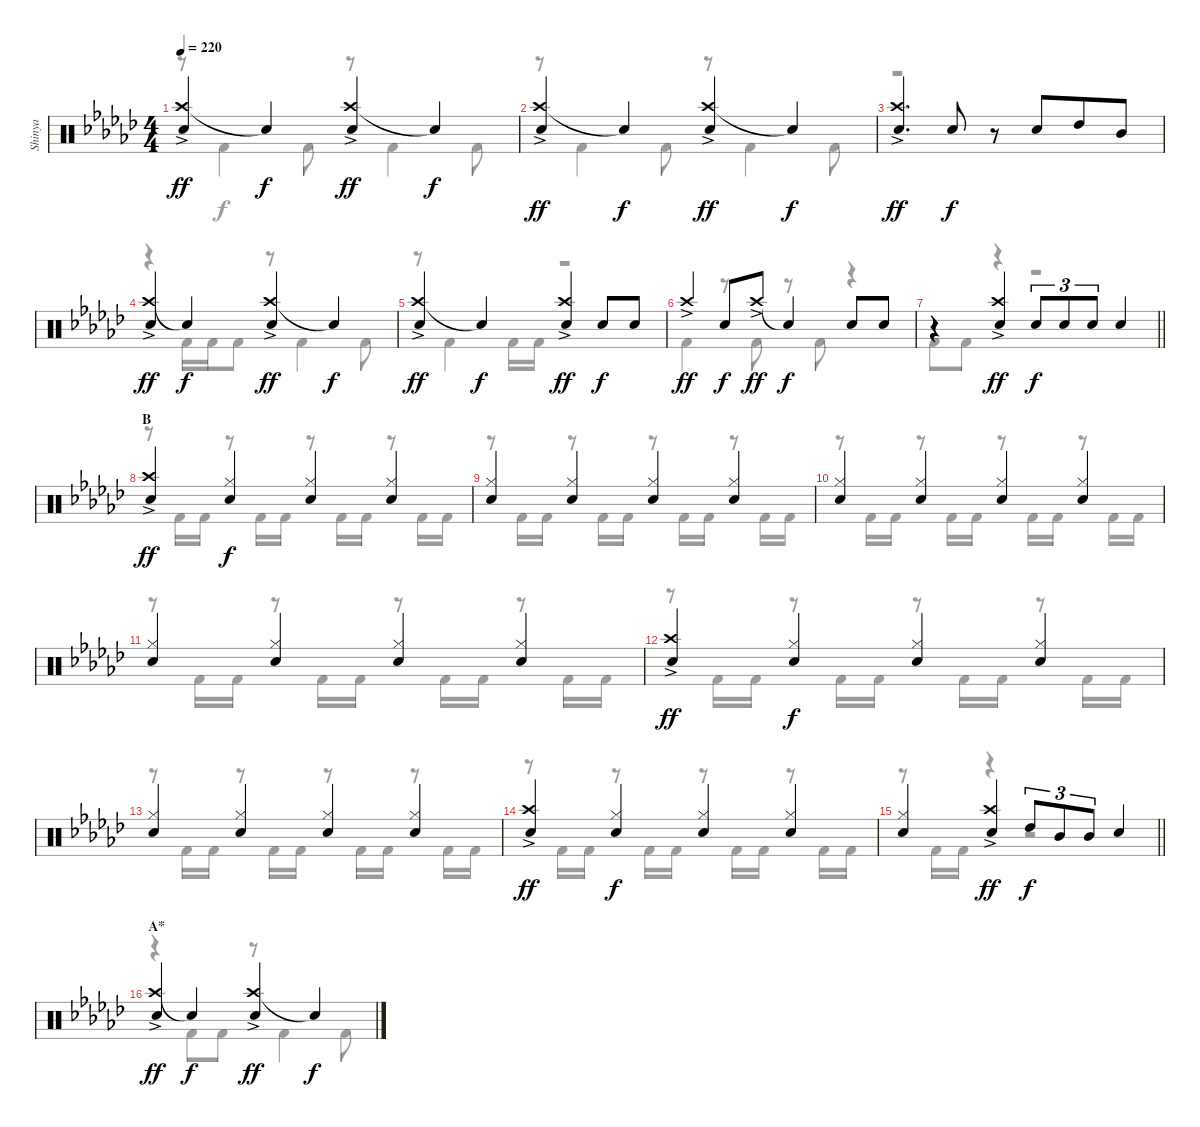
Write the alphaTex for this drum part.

\track ("Shinya" "Shinya") {instrument percussion}
\staff {score}
\articulation defaults
\voice
\ts (4 4)
\tempo 220
\clef neutral
\ks ebminor
("Crash high (hit)"{ac} "Snare (hit) 2").4{dy ff} "Snare (hit)"{t}.4{dy f} ("Crash high (hit)"{ac} "Snare (hit) 2").4{dy ff} "Snare (hit)"{t}.4{dy f} |
("Crash high (hit)"{ac} "Snare (hit) 2").4{dy ff} "Snare (hit)"{t}.4{dy f} ("Crash high (hit)"{ac} "Snare (hit) 2").4{dy ff} "Snare (hit)"{t}.4{dy f} |
("Crash high (hit)"{ac} "Snare (hit) 2").4{d dy ff} "Snare (hit) 2".8{dy f} r.8 "Snare (hit) 2".8{beam merge} "High Tom (hit)".8 "Mid Tom (hit)".8 |
("Crash high (hit)"{ac} "Snare (hit) 2").4{dy ff} "Snare (hit)"{t}.4{dy f} ("Crash high (hit)"{ac} "Snare (hit) 2").4{dy ff} "Snare (hit)"{t}.4{dy f} |
("Crash high (hit)"{ac} "Snare (hit) 2").4{dy ff} "Snare (hit)"{t}.4{dy f} ("Crash high (hit)"{ac} "Snare (hit) 2").4{dy ff} "Snare (hit) 2".8{dy f} "Snare (hit) 2".8 |
"Crash high (hit)"{ac}.4{dy ff} "Snare (hit) 2".8{dy f} "Crash high (hit)"{ac}.8{dy ff} "Snare (hit)"{t}.4{dy f} "Snare (hit) 2".8 "Snare (hit) 2".8 |
\barLineRight lightlight
r.4 ("Crash high (hit)"{ac} "Snare (hit) 2").4{dy ff} "Snare (hit) 2".8{tu (3 2) dy f} "Snare (hit) 2".8{tu (3 2)} "Snare (hit) 2".8{tu (3 2)} "Snare (hit) 2".4 |
\section ("" "B")
("Crash high (hit)"{ac} "Snare (hit) 2").4{dy ff} ("Hi-Hat (closed)" "Snare (hit) 2").4{dy f} ("Hi-Hat (closed)" "Snare (hit) 2").4 ("Hi-Hat (closed)" "Snare (hit) 2").4 |
("Hi-Hat (closed)" "Snare (hit) 2").4 ("Hi-Hat (closed)" "Snare (hit) 2").4 ("Hi-Hat (closed)" "Snare (hit) 2").4 ("Hi-Hat (closed)" "Snare (hit) 2").4 |
("Hi-Hat (closed)" "Snare (hit) 2").4 ("Hi-Hat (closed)" "Snare (hit) 2").4 ("Hi-Hat (closed)" "Snare (hit) 2").4 ("Hi-Hat (closed)" "Snare (hit) 2").4 |
("Hi-Hat (closed)" "Snare (hit) 2").4 ("Hi-Hat (closed)" "Snare (hit) 2").4 ("Hi-Hat (closed)" "Snare (hit) 2").4 ("Hi-Hat (closed)" "Snare (hit) 2").4 |
("Crash high (hit)"{ac} "Snare (hit) 2").4{dy ff} ("Hi-Hat (closed)" "Snare (hit) 2").4{dy f} ("Hi-Hat (closed)" "Snare (hit) 2").4 ("Hi-Hat (closed)" "Snare (hit) 2").4 |
("Hi-Hat (closed)" "Snare (hit) 2").4 ("Hi-Hat (closed)" "Snare (hit) 2").4 ("Hi-Hat (closed)" "Snare (hit) 2").4 ("Hi-Hat (closed)" "Snare (hit) 2").4 |
("Crash high (hit)"{ac} "Snare (hit) 2").4{dy ff} ("Hi-Hat (closed)" "Snare (hit) 2").4{dy f} ("Hi-Hat (closed)" "Snare (hit) 2").4 ("Hi-Hat (closed)" "Snare (hit) 2").4 |
\barLineRight lightlight
("Hi-Hat (closed)" "Snare (hit) 2").4 ("Crash high (hit)"{ac} "Snare (hit) 2").4{dy ff} "High Tom (hit)".8{tu (3 2) dy f} "Mid Tom (hit)".8{tu (3 2)} "Mid Tom (hit)".8{tu (3 2)} "Snare (hit) 2".4 |
\section ("" "A*")
("Crash high (hit)"{ac} "Snare (hit) 2").4{dy ff} "Snare (hit)"{t}.4{dy f} ("Crash high (hit)"{ac} "Snare (hit) 2").4{dy ff} "Snare (hit)"{t}.4{dy f}
\voice
\clef neutral
\ottava regular
\simile none
\ks ebminor
r.8{dy f} "Kick (hit) 2".4 "Kick (hit) 2".8 r.8 "Kick (hit) 2".4 "Kick (hit) 2".8 |
r.8 "Kick (hit) 2".4 "Kick (hit) 2".8 r.8 "Kick (hit) 2".4 "Kick (hit) 2".8 |
r.1 |
r.4 "Kick (hit) 2".16 "Kick (hit) 2".16 "Kick (hit) 2".8 r.8 "Kick (hit) 2".4 "Kick (hit) 2".8 |
r.8 "Kick (hit) 2".4 "Kick (hit) 2".16 "Kick (hit) 2".16 r.2 |
"Kick (hit) 2".4 r.8 "Kick (hit) 2".8 r.8 "Kick (hit) 2".8 r.4 |
\barLineRight lightlight "Kick (hit) 2".8 "Kick (hit) 2".8
r.4 r.2 |
r.8 "Kick (hit) 2".16 "Kick (hit) 2".16 r.8 "Kick (hit) 2".16 "Kick (hit) 2".16 r.8 "Kick (hit) 2".16 "Kick (hit) 2".16 r.8 "Kick (hit) 2".16 "Kick (hit) 2".16 |
r.8 "Kick (hit) 2".16 "Kick (hit) 2".16 r.8 "Kick (hit) 2".16 "Kick (hit) 2".16 r.8 "Kick (hit) 2".16 "Kick (hit) 2".16 r.8 "Kick (hit) 2".16 "Kick (hit) 2".16 |
r.8 "Kick (hit) 2".16 "Kick (hit) 2".16 r.8 "Kick (hit) 2".16 "Kick (hit) 2".16 r.8 "Kick (hit) 2".16 "Kick (hit) 2".16 r.8 "Kick (hit) 2".16 "Kick (hit) 2".16 |
r.8 "Kick (hit) 2".16 "Kick (hit) 2".16 r.8 "Kick (hit) 2".16 "Kick (hit) 2".16 r.8 "Kick (hit) 2".16 "Kick (hit) 2".16 r.8 "Kick (hit) 2".16 "Kick (hit) 2".16 |
r.8 "Kick (hit) 2".16 "Kick (hit) 2".16 r.8 "Kick (hit) 2".16 "Kick (hit) 2".16 r.8 "Kick (hit) 2".16 "Kick (hit) 2".16 r.8 "Kick (hit) 2".16 "Kick (hit) 2".16 |
r.8 "Kick (hit) 2".16 "Kick (hit) 2".16 r.8 "Kick (hit) 2".16 "Kick (hit) 2".16 r.8 "Kick (hit) 2".16 "Kick (hit) 2".16 r.8 "Kick (hit) 2".16 "Kick (hit) 2".16 |
r.8 "Kick (hit) 2".16 "Kick (hit) 2".16 r.8 "Kick (hit) 2".16 "Kick (hit) 2".16 r.8 "Kick (hit) 2".16 "Kick (hit) 2".16 r.8 "Kick (hit) 2".16 "Kick (hit) 2".16 |
\barLineRight lightlight
r.8 "Kick (hit) 2".16 "Kick (hit) 2".16 r.4 r.2 |
r.4 "Kick (hit) 2".8 "Kick (hit) 2".8 r.8 "Kick (hit) 2".4 "Kick (hit) 2".8
